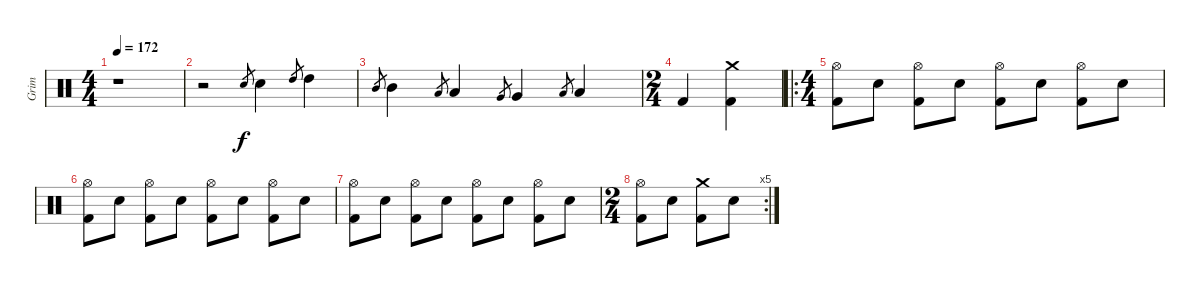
\track ("Grim" "Grim") {instrument percussion}
\staff {score}
\articulation defaults
\ts (4 4)
\tempo 172
\clef neutral
\ks c
r.1{dy f} |
r.2 "Electric Snare (hit)".8{gr} "Electric Snare (hit)".4 "High Tom (hit)".8{gr} "High Tom (hit)".4 |
"Mid Tom (hit)".8{gr} "Mid Tom (hit)".4 "Low Tom (hit)".8{gr} "Low Tom (hit)".4 "Very Low Tom (hit)".8{gr} "Very Low Tom (hit)".4 "Low Floor Tom (hit)".8{gr} "Low Floor Tom (hit)".4 |
\ts (2 4)
"Kick (hit) 2".4 ("Crash medium (hit)" "Kick (hit) 2").4 |
\ro
\ts (4 4)
("Hi-Hat (open)" "Kick (hit) 2").8 "Electric Snare (hit)".8 ("Hi-Hat (open)" "Kick (hit) 2").8 "Electric Snare (hit)".8 ("Hi-Hat (open)" "Kick (hit) 2").8 "Electric Snare (hit)".8 ("Hi-Hat (open)" "Kick (hit) 2").8 "Electric Snare (hit)".8 |
("Hi-Hat (open)" "Kick (hit) 2").8 "Electric Snare (hit)".8 ("Hi-Hat (open)" "Kick (hit) 2").8 "Electric Snare (hit)".8 ("Hi-Hat (open)" "Kick (hit) 2").8 "Electric Snare (hit)".8 ("Hi-Hat (open)" "Kick (hit) 2").8 "Electric Snare (hit)".8 |
("Hi-Hat (open)" "Kick (hit) 2").8 "Electric Snare (hit)".8 ("Hi-Hat (open)" "Kick (hit) 2").8 "Electric Snare (hit)".8 ("Hi-Hat (open)" "Kick (hit) 2").8 "Electric Snare (hit)".8 ("Hi-Hat (open)" "Kick (hit) 2").8 "Electric Snare (hit)".8 |
\rc 5
\ts (2 4)
("Hi-Hat (open)" "Kick (hit) 2").8 "Electric Snare (hit)".8 ("Crash medium (hit)" "Kick (hit) 2").8 "Electric Snare (hit)".8
